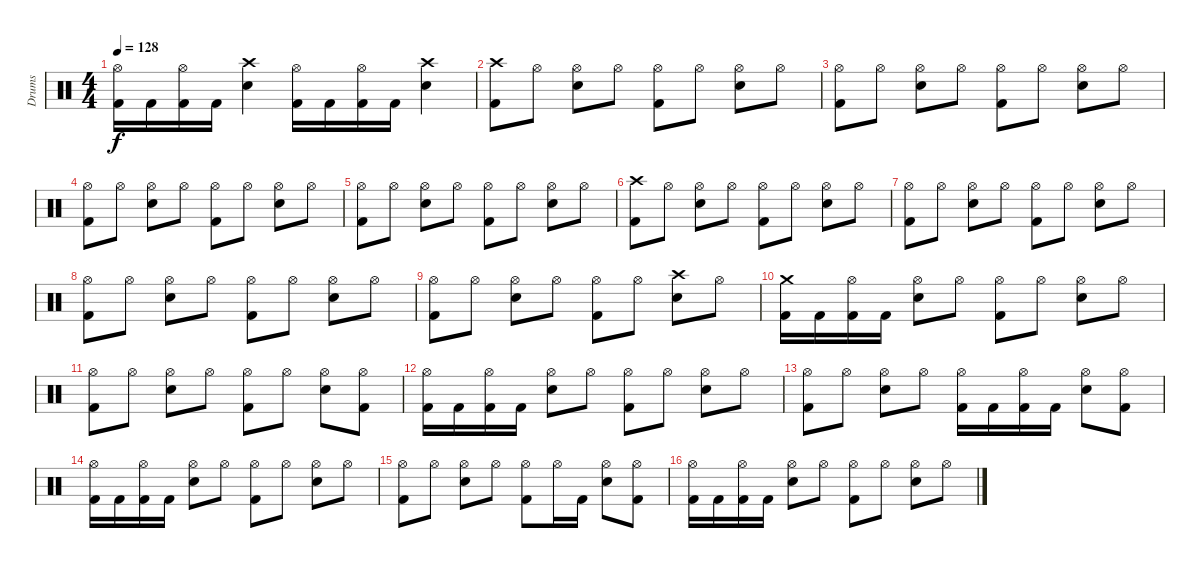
\track ("Drums" "Drums") {instrument percussion}
\staff {score}
\articulation defaults
\ts (4 4)
\tempo 128
\clef neutral
\ks c
("Hi-Hat (open)" "Kick (hit) 2").16{dy f} "Kick (hit) 2".16 ("Hi-Hat (open)" "Kick (hit) 2").16 "Kick (hit) 2".16 ("Crash high (hit)" "Snare (hit) 2").4 ("Hi-Hat (open)" "Kick (hit) 2").16 "Kick (hit) 2".16 ("Hi-Hat (open)" "Kick (hit) 2").16 "Kick (hit) 2".16 ("Crash high (hit)" "Snare (hit) 2").4 |
("Crash high (hit)" "Kick (hit) 2").8 "Hi-Hat (open)".8 ("Hi-Hat (open)" "Snare (hit) 2").8 "Hi-Hat (open)".8 ("Hi-Hat (open)" "Kick (hit) 2").8 "Hi-Hat (open)".8 ("Hi-Hat (open)" "Snare (hit) 2").8 "Hi-Hat (open)".8 |
("Hi-Hat (open)" "Kick (hit) 2").8 "Hi-Hat (open)".8 ("Hi-Hat (open)" "Snare (hit) 2").8 "Hi-Hat (open)".8 ("Hi-Hat (open)" "Kick (hit) 2").8 "Hi-Hat (open)".8 ("Hi-Hat (open)" "Snare (hit) 2").8 "Hi-Hat (open)".8 |
("Hi-Hat (open)" "Kick (hit) 2").8 "Hi-Hat (open)".8 ("Hi-Hat (open)" "Snare (hit) 2").8 "Hi-Hat (open)".8 ("Hi-Hat (open)" "Kick (hit) 2").8 "Hi-Hat (open)".8 ("Hi-Hat (open)" "Snare (hit) 2").8 "Hi-Hat (open)".8 |
("Hi-Hat (open)" "Kick (hit) 2").8 "Hi-Hat (open)".8 ("Hi-Hat (open)" "Snare (hit) 2").8 "Hi-Hat (open)".8 ("Hi-Hat (open)" "Kick (hit) 2").8 "Hi-Hat (open)".8 ("Hi-Hat (open)" "Snare (hit) 2").8 "Hi-Hat (open)".8 |
("Crash high (hit)" "Kick (hit) 2").8 "Hi-Hat (open)".8 ("Hi-Hat (open)" "Snare (hit) 2").8 "Hi-Hat (open)".8 ("Hi-Hat (open)" "Kick (hit) 2").8 "Hi-Hat (open)".8 ("Hi-Hat (open)" "Snare (hit) 2").8 "Hi-Hat (open)".8 |
("Hi-Hat (open)" "Kick (hit) 2").8 "Hi-Hat (open)".8 ("Hi-Hat (open)" "Snare (hit) 2").8 "Hi-Hat (open)".8 ("Hi-Hat (open)" "Kick (hit) 2").8 "Hi-Hat (open)".8 ("Hi-Hat (open)" "Snare (hit) 2").8 "Hi-Hat (open)".8 |
("Hi-Hat (open)" "Kick (hit) 2").8 "Hi-Hat (open)".8 ("Hi-Hat (open)" "Snare (hit) 2").8 "Hi-Hat (open)".8 ("Hi-Hat (open)" "Kick (hit) 2").8 "Hi-Hat (open)".8 ("Hi-Hat (open)" "Snare (hit) 2").8 "Hi-Hat (open)".8 |
("Hi-Hat (open)" "Kick (hit) 2").8 "Hi-Hat (open)".8 ("Hi-Hat (open)" "Snare (hit) 2").8 "Hi-Hat (open)".8 ("Hi-Hat (open)" "Kick (hit) 2").8 "Hi-Hat (open)".8 ("Crash high (hit)" "Snare (hit) 2").8 "Hi-Hat (open)".8 |
("Crash medium (hit)" "Kick (hit) 2").16 "Kick (hit) 2".16 ("Hi-Hat (open)" "Kick (hit) 2").16 "Kick (hit) 2".16 ("Hi-Hat (open)" "Snare (hit) 2").8 "Hi-Hat (open)".8 ("Hi-Hat (open)" "Kick (hit) 2").8 "Hi-Hat (open)".8 ("Hi-Hat (open)" "Snare (hit) 2").8 "Hi-Hat (open)".8 |
("Hi-Hat (open)" "Kick (hit) 2").8 "Hi-Hat (open)".8 ("Hi-Hat (open)" "Snare (hit) 2").8 "Hi-Hat (open)".8 ("Hi-Hat (open)" "Kick (hit) 2").8 "Hi-Hat (open)".8 ("Hi-Hat (open)" "Snare (hit) 2").8 ("Hi-Hat (open)" "Kick (hit) 2").8 |
("Hi-Hat (open)" "Kick (hit) 2").16 "Kick (hit) 2".16 ("Hi-Hat (open)" "Kick (hit) 2").16 "Kick (hit) 2".16 ("Hi-Hat (open)" "Snare (hit) 2").8 "Hi-Hat (open)".8 ("Hi-Hat (open)" "Kick (hit) 2").8 "Hi-Hat (open)".8 ("Hi-Hat (open)" "Snare (hit) 2").8 "Hi-Hat (open)".8 |
("Hi-Hat (open)" "Kick (hit) 2").8 "Hi-Hat (open)".8 ("Hi-Hat (open)" "Snare (hit) 2").8 "Hi-Hat (open)".8 ("Hi-Hat (open)" "Kick (hit) 2").16 "Kick (hit) 2".16 ("Hi-Hat (open)" "Kick (hit) 2").16 "Kick (hit) 2".16 ("Hi-Hat (open)" "Snare (hit) 2").8 ("Hi-Hat (open)" "Kick (hit) 2").8 |
("Hi-Hat (open)" "Kick (hit) 2").16 "Kick (hit) 2".16 ("Hi-Hat (open)" "Kick (hit) 2").16 "Kick (hit) 2".16 ("Hi-Hat (open)" "Snare (hit) 2").8 "Hi-Hat (open)".8 ("Hi-Hat (open)" "Kick (hit) 2").8 "Hi-Hat (open)".8 ("Hi-Hat (open)" "Snare (hit) 2").8 "Hi-Hat (open)".8 |
("Hi-Hat (open)" "Kick (hit) 2").8 "Hi-Hat (open)".8 ("Hi-Hat (open)" "Snare (hit) 2").8 "Hi-Hat (open)".8 ("Hi-Hat (open)" "Kick (hit) 2").8 "Hi-Hat (open)".16 "Kick (hit) 2".16 ("Hi-Hat (open)" "Snare (hit) 2").8 ("Hi-Hat (open)" "Kick (hit) 2").8 |
("Hi-Hat (open)" "Kick (hit) 2").16 "Kick (hit) 2".16 ("Hi-Hat (open)" "Kick (hit) 2").16 "Kick (hit) 2".16 ("Hi-Hat (open)" "Snare (hit) 2").8 "Hi-Hat (open)".8 ("Hi-Hat (open)" "Kick (hit) 2").8 "Hi-Hat (open)".8 ("Hi-Hat (open)" "Snare (hit) 2").8 "Hi-Hat (open)".8
